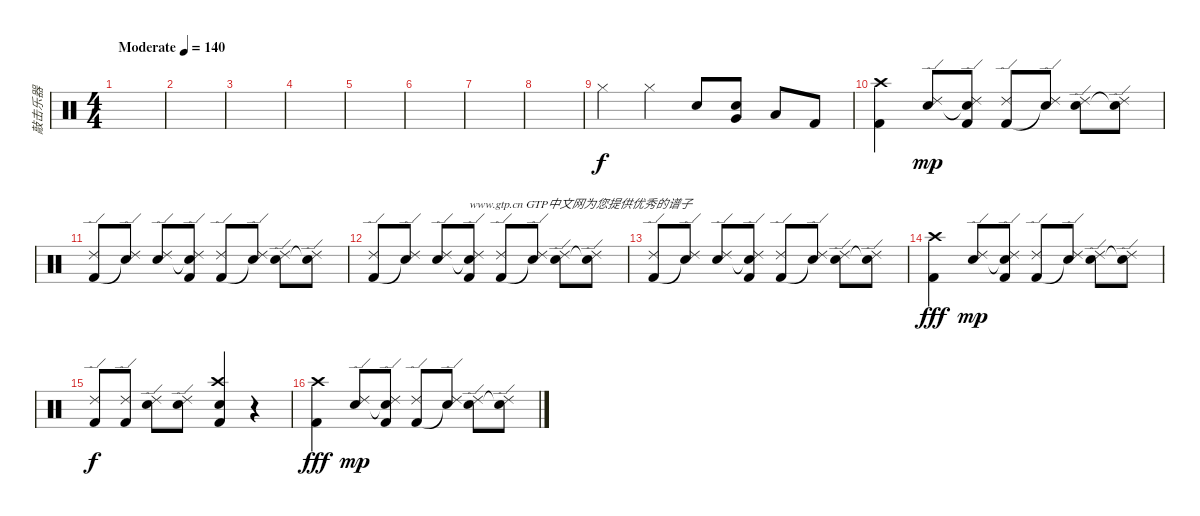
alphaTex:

\track ("敲击乐器" "敲击乐器") {instrument percussion}
\staff {score}
\articulation defaults
\ts (4 4)
\tempo (140 "Moderate")
\clef neutral
\ks c
|
|
|
|
|
|
|
|
"Hi-Hat (closed)".4 "Hi-Hat (closed)".4 "Electric Snare (hit)".8 ("Electric Snare (hit)" "Very Low Tom (hit)").8 "Low Floor Tom (hit)".8 "Kick (hit) 2".8 |
("Kick (hit) 2" "Crash high (hit)").4 ("Electric Snare (hit)" "Ride (edge) 2").8{dy mp} ("Snare (hit)"{t} "Kick (hit) 2" "Ride (edge) 2").8 ("Kick (hit) 2" "Ride (edge) 2").8 ("Snare (hit)"{t} "Ride (edge) 2").8 ("Electric Snare (hit)" "Ride (edge) 2").8 ("Snare (hit)"{t} "Ride (edge) 2").8 |
("Kick (hit) 2" "Ride (edge) 2").8 ("Snare (hit)"{t} "Ride (edge) 2").8 ("Electric Snare (hit)" "Ride (edge) 2").8 ("Snare (hit)"{t} "Kick (hit) 2" "Ride (edge) 2").8 ("Kick (hit) 2" "Ride (edge) 2").8 ("Snare (hit)"{t} "Ride (edge) 2").8 ("Electric Snare (hit)" "Ride (edge) 2").8 ("Snare (hit)"{t} "Ride (edge) 2").8 |
("Kick (hit) 2" "Ride (edge) 2").8 ("Snare (hit)"{t} "Ride (edge) 2").8 ("Electric Snare (hit)" "Ride (edge) 2").8 ("Snare (hit)"{t} "Kick (hit) 2" "Ride (edge) 2").8{txt "www.gtp.cn GTP中文网为您提供优秀的谱子"} ("Kick (hit) 2" "Ride (edge) 2").8 ("Snare (hit)"{t} "Ride (edge) 2").8 ("Electric Snare (hit)" "Ride (edge) 2").8 ("Snare (hit)"{t} "Ride (edge) 2").8 |
("Kick (hit) 2" "Ride (edge) 2").8 ("Snare (hit)"{t} "Ride (edge) 2").8 ("Electric Snare (hit)" "Ride (edge) 2").8 ("Snare (hit)"{t} "Kick (hit) 2" "Ride (edge) 2").8 ("Kick (hit) 2" "Ride (edge) 2").8 ("Snare (hit)"{t} "Ride (edge) 2").8 ("Electric Snare (hit)" "Ride (edge) 2").8 ("Snare (hit)"{t} "Ride (edge) 2").8 |
("Kick (hit) 2" "Crash high (hit)").4{dy fff} ("Electric Snare (hit)" "Ride (edge) 2").8{dy mp} ("Snare (hit)"{t} "Kick (hit) 2" "Ride (edge) 2").8 ("Kick (hit) 2" "Ride (edge) 2").8 ("Snare (hit)"{t} "Ride (edge) 2").8 ("Electric Snare (hit)" "Ride (edge) 2").8 ("Snare (hit)"{t} "Ride (edge) 2").8 |
("Kick (hit) 2" "Ride (edge) 2").8{dy f} ("Kick (hit) 2" "Ride (edge) 2").8 ("Snare (hit) 2" "Ride (edge) 2").8 ("Snare (hit) 2" "Ride (edge) 2").8 ("Crash high (hit)" "Snare (hit) 2" "Kick (hit) 2").4 r.4 |
("Kick (hit) 2" "Crash high (hit)").4{dy fff} ("Electric Snare (hit)" "Ride (edge) 2").8{dy mp} ("Snare (hit)"{t} "Kick (hit) 2" "Ride (edge) 2").8 ("Kick (hit) 2" "Ride (edge) 2").8 ("Snare (hit)"{t} "Ride (edge) 2").8 ("Electric Snare (hit)" "Ride (edge) 2").8 ("Snare (hit)"{t} "Ride (edge) 2").8
